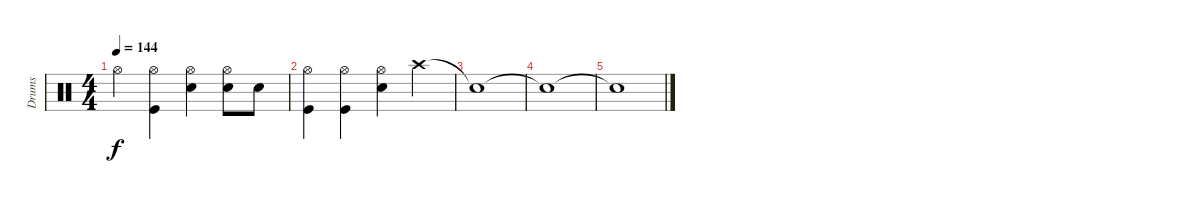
\track ("Drums               " "Drums     ") {instrument percussion}
\staff {score}
\articulation defaults
\ts (4 4)
\tempo 144
\clef neutral
\ks c "Hi-Hat (open)".4{dy f}
("Kick (hit)" "Hi-Hat (open)").4 ("Hi-Hat (open)" "Snare (hit) 2").4 ("Hi-Hat (open)" "Snare (hit) 2").8 "Snare (hit) 2".8 |
("Kick (hit)" "Hi-Hat (open)").4 ("Kick (hit)" "Hi-Hat (open)").4 ("Snare (hit) 2" "Hi-Hat (open)").4 "Crash high (hit)".4 |
"Snare (hit)"{t}.1 |
"Snare (hit)"{t}.1 |
"Snare (hit)"{t}.1
